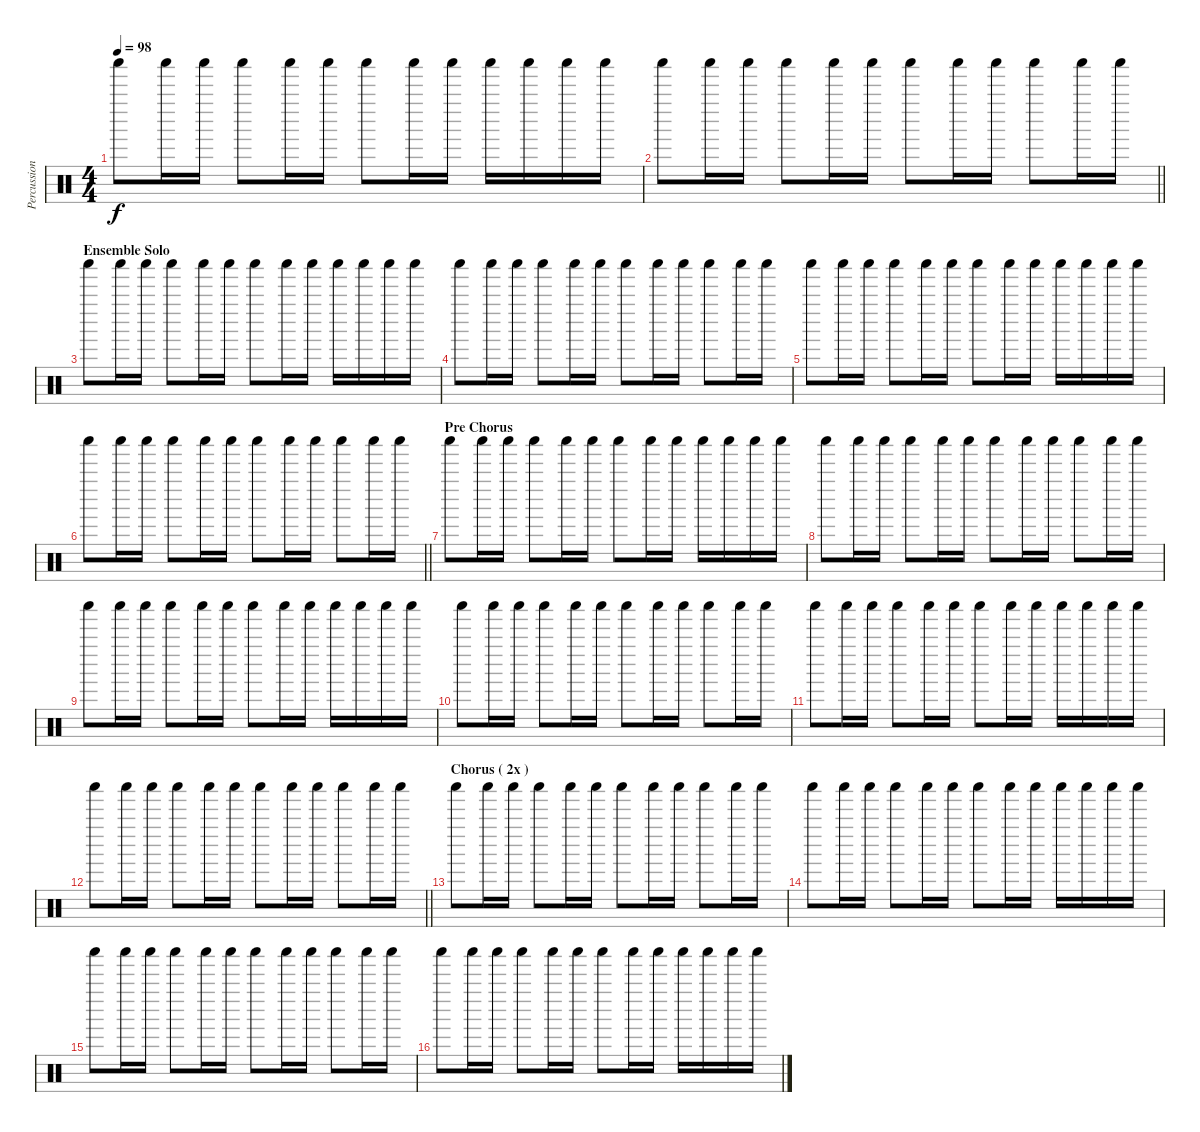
\track ("Percussion" "Percussion") {instrument percussion}
\staff {score}
\articulation defaults
\ts (4 4)
\tempo 98
\clef neutral
\ks c "Shaker (hit)".8{dy f} "Shaker (hit)".16 "Shaker (hit)".16 "Shaker (hit)".8 "Shaker (hit)".16 "Shaker (hit)".16 "Shaker (hit)".8 "Shaker (hit)".16 "Shaker (hit)".16 "Shaker (hit)".16 "Shaker (hit)".16 "Shaker (hit)".16 "Shaker (hit)".16
|
\barLineRight lightlight "Shaker (hit)".8 "Shaker (hit)".16 "Shaker (hit)".16 "Shaker (hit)".8 "Shaker (hit)".16 "Shaker (hit)".16 "Shaker (hit)".8 "Shaker (hit)".16 "Shaker (hit)".16 "Shaker (hit)".8 "Shaker (hit)".16 "Shaker (hit)".16
|
\section ("" "Ensemble Solo")
"Shaker (hit)".8 "Shaker (hit)".16 "Shaker (hit)".16 "Shaker (hit)".8 "Shaker (hit)".16 "Shaker (hit)".16 "Shaker (hit)".8 "Shaker (hit)".16 "Shaker (hit)".16 "Shaker (hit)".16 "Shaker (hit)".16 "Shaker (hit)".16 "Shaker (hit)".16 |
"Shaker (hit)".8 "Shaker (hit)".16 "Shaker (hit)".16 "Shaker (hit)".8 "Shaker (hit)".16 "Shaker (hit)".16 "Shaker (hit)".8 "Shaker (hit)".16 "Shaker (hit)".16 "Shaker (hit)".8 "Shaker (hit)".16 "Shaker (hit)".16 |
"Shaker (hit)".8 "Shaker (hit)".16 "Shaker (hit)".16 "Shaker (hit)".8 "Shaker (hit)".16 "Shaker (hit)".16 "Shaker (hit)".8 "Shaker (hit)".16 "Shaker (hit)".16 "Shaker (hit)".16 "Shaker (hit)".16 "Shaker (hit)".16 "Shaker (hit)".16 |
\barLineRight lightlight "Shaker (hit)".8 "Shaker (hit)".16 "Shaker (hit)".16 "Shaker (hit)".8 "Shaker (hit)".16 "Shaker (hit)".16 "Shaker (hit)".8 "Shaker (hit)".16 "Shaker (hit)".16 "Shaker (hit)".8 "Shaker (hit)".16 "Shaker (hit)".16
|
\section ("" "Pre Chorus")
"Shaker (hit)".8 "Shaker (hit)".16 "Shaker (hit)".16 "Shaker (hit)".8 "Shaker (hit)".16 "Shaker (hit)".16 "Shaker (hit)".8 "Shaker (hit)".16 "Shaker (hit)".16 "Shaker (hit)".16 "Shaker (hit)".16 "Shaker (hit)".16 "Shaker (hit)".16 |
"Shaker (hit)".8 "Shaker (hit)".16 "Shaker (hit)".16 "Shaker (hit)".8 "Shaker (hit)".16 "Shaker (hit)".16 "Shaker (hit)".8 "Shaker (hit)".16 "Shaker (hit)".16 "Shaker (hit)".8 "Shaker (hit)".16 "Shaker (hit)".16 |
"Shaker (hit)".8 "Shaker (hit)".16 "Shaker (hit)".16 "Shaker (hit)".8 "Shaker (hit)".16 "Shaker (hit)".16 "Shaker (hit)".8 "Shaker (hit)".16 "Shaker (hit)".16 "Shaker (hit)".16 "Shaker (hit)".16 "Shaker (hit)".16 "Shaker (hit)".16 |
"Shaker (hit)".8 "Shaker (hit)".16 "Shaker (hit)".16 "Shaker (hit)".8 "Shaker (hit)".16 "Shaker (hit)".16 "Shaker (hit)".8 "Shaker (hit)".16 "Shaker (hit)".16 "Shaker (hit)".8 "Shaker (hit)".16 "Shaker (hit)".16 |
"Shaker (hit)".8 "Shaker (hit)".16 "Shaker (hit)".16 "Shaker (hit)".8 "Shaker (hit)".16 "Shaker (hit)".16 "Shaker (hit)".8 "Shaker (hit)".16 "Shaker (hit)".16 "Shaker (hit)".16 "Shaker (hit)".16 "Shaker (hit)".16 "Shaker (hit)".16 |
\barLineRight lightlight "Shaker (hit)".8 "Shaker (hit)".16 "Shaker (hit)".16 "Shaker (hit)".8 "Shaker (hit)".16 "Shaker (hit)".16 "Shaker (hit)".8 "Shaker (hit)".16 "Shaker (hit)".16 "Shaker (hit)".8 "Shaker (hit)".16 "Shaker (hit)".16
|
\section ("" "Chorus ( 2x )")
"Shaker (hit)".8 "Shaker (hit)".16 "Shaker (hit)".16 "Shaker (hit)".8 "Shaker (hit)".16 "Shaker (hit)".16 "Shaker (hit)".8 "Shaker (hit)".16 "Shaker (hit)".16 "Shaker (hit)".8 "Shaker (hit)".16 "Shaker (hit)".16 |
"Shaker (hit)".8 "Shaker (hit)".16 "Shaker (hit)".16 "Shaker (hit)".8 "Shaker (hit)".16 "Shaker (hit)".16 "Shaker (hit)".8 "Shaker (hit)".16 "Shaker (hit)".16 "Shaker (hit)".16 "Shaker (hit)".16 "Shaker (hit)".16 "Shaker (hit)".16 |
"Shaker (hit)".8 "Shaker (hit)".16 "Shaker (hit)".16 "Shaker (hit)".8 "Shaker (hit)".16 "Shaker (hit)".16 "Shaker (hit)".8 "Shaker (hit)".16 "Shaker (hit)".16 "Shaker (hit)".8 "Shaker (hit)".16 "Shaker (hit)".16 |
"Shaker (hit)".8 "Shaker (hit)".16 "Shaker (hit)".16 "Shaker (hit)".8 "Shaker (hit)".16 "Shaker (hit)".16 "Shaker (hit)".8 "Shaker (hit)".16 "Shaker (hit)".16 "Shaker (hit)".16 "Shaker (hit)".16 "Shaker (hit)".16 "Shaker (hit)".16
